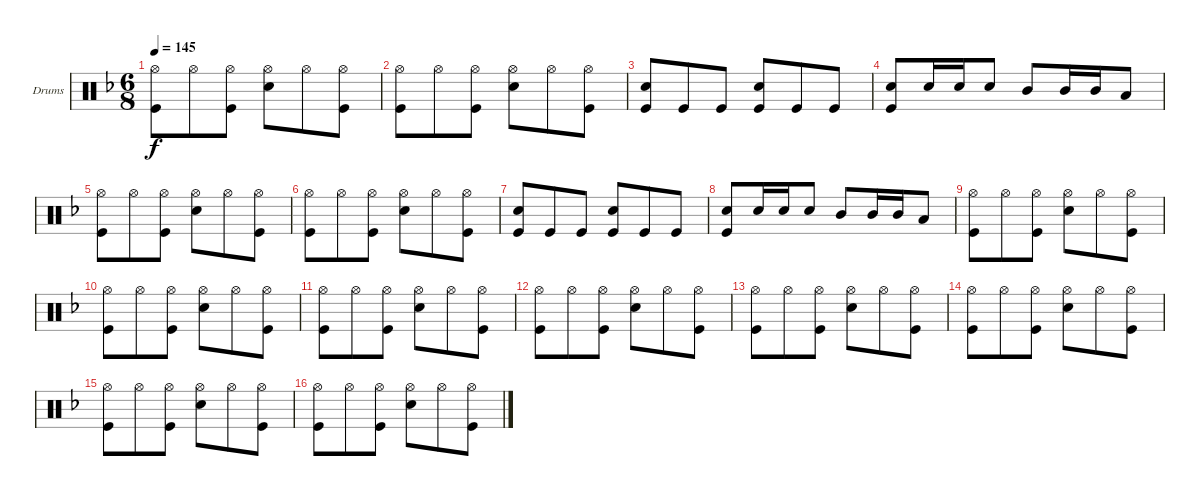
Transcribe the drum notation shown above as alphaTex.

\bracketExtendMode groupsimilarinstruments
\firstSystemTrackNameOrientation horizontal
\otherSystemsTrackNameOrientation horizontal
\track ("Drumkit" "Drums") {instrument percussion}
\staff {score}
\articulation defaults
\ts (6 8)
\tempo 145
\clef neutral
\ks f
("Hi-Hat (open)" "Kick (hit)").8{dy f} "Hi-Hat (open)".8 ("Hi-Hat (open)" "Kick (hit)").8 ("Hi-Hat (open)" "Snare (hit) 2").8 "Hi-Hat (open)".8 ("Hi-Hat (open)" "Kick (hit)").8 |
("Hi-Hat (open)" "Kick (hit)").8 "Hi-Hat (open)".8 ("Hi-Hat (open)" "Kick (hit)").8 ("Hi-Hat (open)" "Snare (hit) 2").8 "Hi-Hat (open)".8 ("Hi-Hat (open)" "Kick (hit)").8 |
("Kick (hit)" "Snare (hit) 2").8 "Kick (hit)".8 "Kick (hit)".8 ("Snare (hit) 2" "Kick (hit)").8 "Kick (hit)".8 "Kick (hit)".8 |
("Snare (hit) 2" "Kick (hit)").8 "Snare (hit) 2".16 "Snare (hit) 2".16 "Snare (hit) 2".8 "Mid Tom (hit)".8 "Mid Tom (hit)".16 "Mid Tom (hit)".16 "Low Tom (hit)".8 |
("Hi-Hat (open)" "Kick (hit)").8 "Hi-Hat (open)".8 ("Hi-Hat (open)" "Kick (hit)").8 ("Hi-Hat (open)" "Snare (hit) 2").8 "Hi-Hat (open)".8 ("Hi-Hat (open)" "Kick (hit)").8 |
("Hi-Hat (open)" "Kick (hit)").8 "Hi-Hat (open)".8 ("Hi-Hat (open)" "Kick (hit)").8 ("Hi-Hat (open)" "Snare (hit) 2").8 "Hi-Hat (open)".8 ("Hi-Hat (open)" "Kick (hit)").8 |
("Kick (hit)" "Snare (hit) 2").8 "Kick (hit)".8 "Kick (hit)".8 ("Snare (hit) 2" "Kick (hit)").8 "Kick (hit)".8 "Kick (hit)".8 |
("Snare (hit) 2" "Kick (hit)").8 "Snare (hit) 2".16 "Snare (hit) 2".16 "Snare (hit) 2".8 "Mid Tom (hit)".8 "Mid Tom (hit)".16 "Mid Tom (hit)".16 "Low Tom (hit)".8 |
("Hi-Hat (open)" "Kick (hit)").8 "Hi-Hat (open)".8 ("Hi-Hat (open)" "Kick (hit)").8 ("Hi-Hat (open)" "Snare (hit) 2").8 "Hi-Hat (open)".8 ("Hi-Hat (open)" "Kick (hit)").8 |
("Hi-Hat (open)" "Kick (hit)").8 "Hi-Hat (open)".8 ("Hi-Hat (open)" "Kick (hit)").8 ("Hi-Hat (open)" "Snare (hit) 2").8 "Hi-Hat (open)".8 ("Hi-Hat (open)" "Kick (hit)").8 |
("Hi-Hat (open)" "Kick (hit)").8 "Hi-Hat (open)".8 ("Hi-Hat (open)" "Kick (hit)").8 ("Hi-Hat (open)" "Snare (hit) 2").8 "Hi-Hat (open)".8 ("Hi-Hat (open)" "Kick (hit)").8 |
("Hi-Hat (open)" "Kick (hit)").8 "Hi-Hat (open)".8 ("Hi-Hat (open)" "Kick (hit)").8 ("Hi-Hat (open)" "Snare (hit) 2").8 "Hi-Hat (open)".8 ("Hi-Hat (open)" "Kick (hit)").8 |
("Hi-Hat (open)" "Kick (hit)").8 "Hi-Hat (open)".8 ("Hi-Hat (open)" "Kick (hit)").8 ("Hi-Hat (open)" "Snare (hit) 2").8 "Hi-Hat (open)".8 ("Hi-Hat (open)" "Kick (hit)").8 |
("Hi-Hat (open)" "Kick (hit)").8 "Hi-Hat (open)".8 ("Hi-Hat (open)" "Kick (hit)").8 ("Hi-Hat (open)" "Snare (hit) 2").8 "Hi-Hat (open)".8 ("Hi-Hat (open)" "Kick (hit)").8 |
("Hi-Hat (open)" "Kick (hit)").8 "Hi-Hat (open)".8 ("Hi-Hat (open)" "Kick (hit)").8 ("Hi-Hat (open)" "Snare (hit) 2").8 "Hi-Hat (open)".8 ("Hi-Hat (open)" "Kick (hit)").8 |
("Hi-Hat (open)" "Kick (hit)").8 "Hi-Hat (open)".8 ("Hi-Hat (open)" "Kick (hit)").8 ("Hi-Hat (open)" "Snare (hit) 2").8 "Hi-Hat (open)".8 ("Hi-Hat (open)" "Kick (hit)").8
